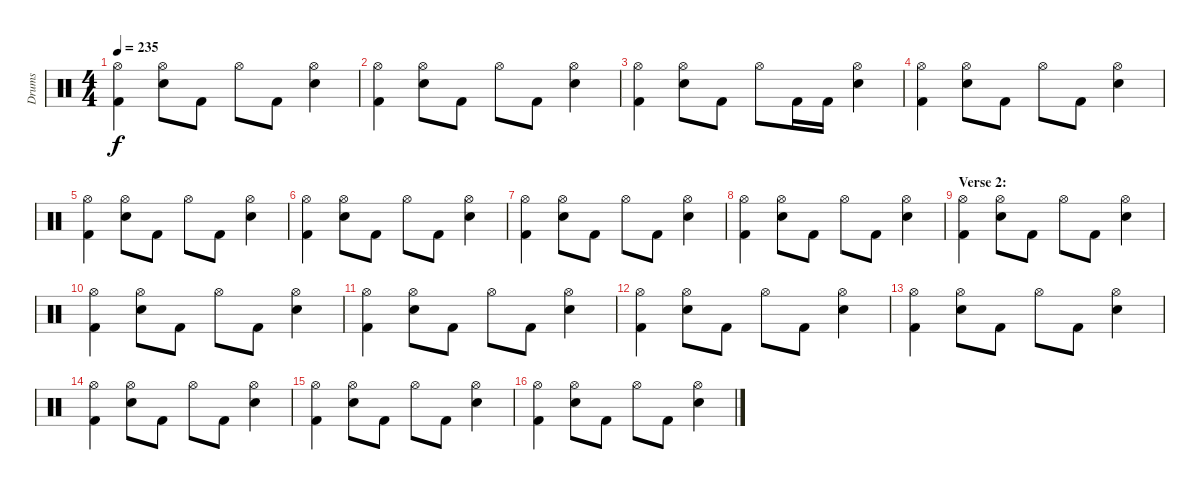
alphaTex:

\track ("Drums" "Drums") {instrument percussion}
\staff {score}
\articulation defaults
\ts (4 4)
\tempo 235
\clef neutral
\ks c
("Hi-Hat (open)" "Kick (hit) 2").4{dy f} ("Hi-Hat (open)" "Snare (hit) 2").8 "Kick (hit) 2".8 "Hi-Hat (open)".8 "Kick (hit) 2".8 ("Hi-Hat (open)" "Snare (hit) 2").4 |
("Hi-Hat (open)" "Kick (hit) 2").4 ("Hi-Hat (open)" "Snare (hit) 2").8 "Kick (hit) 2".8 "Hi-Hat (open)".8 "Kick (hit) 2".8 ("Hi-Hat (open)" "Snare (hit) 2").4 |
("Hi-Hat (open)" "Kick (hit) 2").4 ("Hi-Hat (open)" "Snare (hit) 2").8 "Kick (hit) 2".8 "Hi-Hat (open)".8 "Kick (hit) 2".16 "Kick (hit) 2".16 ("Hi-Hat (open)" "Snare (hit) 2").4 |
("Hi-Hat (open)" "Kick (hit) 2").4 ("Hi-Hat (open)" "Snare (hit) 2").8 "Kick (hit) 2".8 "Hi-Hat (open)".8 "Kick (hit) 2".8 ("Hi-Hat (open)" "Snare (hit) 2").4 |
("Hi-Hat (open)" "Kick (hit) 2").4 ("Hi-Hat (open)" "Snare (hit) 2").8 "Kick (hit) 2".8 "Hi-Hat (open)".8 "Kick (hit) 2".8 ("Hi-Hat (open)" "Snare (hit) 2").4 |
("Hi-Hat (open)" "Kick (hit) 2").4 ("Hi-Hat (open)" "Snare (hit) 2").8 "Kick (hit) 2".8 "Hi-Hat (open)".8 "Kick (hit) 2".8 ("Hi-Hat (open)" "Snare (hit) 2").4 |
("Hi-Hat (open)" "Kick (hit) 2").4 ("Hi-Hat (open)" "Snare (hit) 2").8 "Kick (hit) 2".8 "Hi-Hat (open)".8 "Kick (hit) 2".8 ("Hi-Hat (open)" "Snare (hit) 2").4 |
("Hi-Hat (open)" "Kick (hit) 2").4 ("Hi-Hat (open)" "Snare (hit) 2").8 "Kick (hit) 2".8 "Hi-Hat (open)".8 "Kick (hit) 2".8 ("Hi-Hat (open)" "Snare (hit) 2").4 |
\section ("" "Verse 2:")
("Hi-Hat (open)" "Kick (hit) 2").4 ("Hi-Hat (open)" "Snare (hit) 2").8 "Kick (hit) 2".8 "Hi-Hat (open)".8 "Kick (hit) 2".8 ("Hi-Hat (open)" "Snare (hit) 2").4 |
("Hi-Hat (open)" "Kick (hit) 2").4 ("Hi-Hat (open)" "Snare (hit) 2").8 "Kick (hit) 2".8 "Hi-Hat (open)".8 "Kick (hit) 2".8 ("Hi-Hat (open)" "Snare (hit) 2").4 |
("Hi-Hat (open)" "Kick (hit) 2").4 ("Hi-Hat (open)" "Snare (hit) 2").8 "Kick (hit) 2".8 "Hi-Hat (open)".8 "Kick (hit) 2".8 ("Hi-Hat (open)" "Snare (hit) 2").4 |
("Hi-Hat (open)" "Kick (hit) 2").4 ("Hi-Hat (open)" "Snare (hit) 2").8 "Kick (hit) 2".8 "Hi-Hat (open)".8 "Kick (hit) 2".8 ("Hi-Hat (open)" "Snare (hit) 2").4 |
("Hi-Hat (open)" "Kick (hit) 2").4 ("Hi-Hat (open)" "Snare (hit) 2").8 "Kick (hit) 2".8 "Hi-Hat (open)".8 "Kick (hit) 2".8 ("Hi-Hat (open)" "Snare (hit) 2").4 |
("Hi-Hat (open)" "Kick (hit) 2").4 ("Hi-Hat (open)" "Snare (hit) 2").8 "Kick (hit) 2".8 "Hi-Hat (open)".8 "Kick (hit) 2".8 ("Hi-Hat (open)" "Snare (hit) 2").4 |
("Hi-Hat (open)" "Kick (hit) 2").4 ("Hi-Hat (open)" "Snare (hit) 2").8 "Kick (hit) 2".8 "Hi-Hat (open)".8 "Kick (hit) 2".8 ("Hi-Hat (open)" "Snare (hit) 2").4 |
("Hi-Hat (open)" "Kick (hit) 2").4 ("Hi-Hat (open)" "Snare (hit) 2").8 "Kick (hit) 2".8 "Hi-Hat (open)".8 "Kick (hit) 2".8 ("Hi-Hat (open)" "Snare (hit) 2").4
